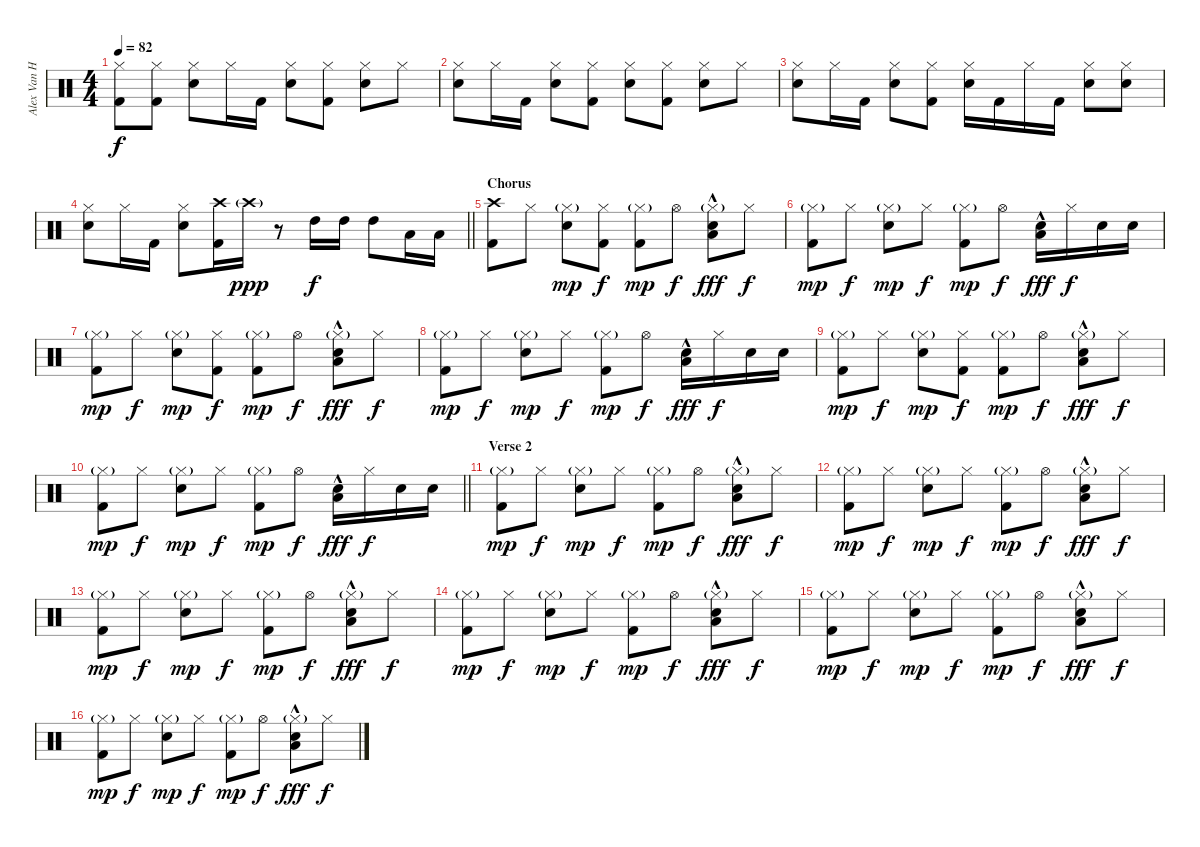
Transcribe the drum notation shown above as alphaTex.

\track ("Alex Van Halen" "Alex Van H") {instrument percussion}
\staff {score}
\articulation defaults
\ts (4 4)
\tempo 82
\clef neutral
\ks c
("Hi-Hat (closed)" "Kick (hit) 2").8{dy f} ("Hi-Hat (closed)" "Kick (hit) 2").8 ("Hi-Hat (closed)" "Electric Snare (hit)").8 "Hi-Hat (closed)".16 "Kick (hit) 2".16 ("Hi-Hat (closed)" "Electric Snare (hit)").8 ("Hi-Hat (closed)" "Kick (hit) 2").8 ("Hi-Hat (closed)" "Electric Snare (hit)").8 "Hi-Hat (closed)".8 |
("Hi-Hat (closed)" "Electric Snare (hit)").8 "Hi-Hat (closed)".16 "Kick (hit) 2".16 ("Hi-Hat (closed)" "Electric Snare (hit)").8 ("Hi-Hat (closed)" "Kick (hit) 2").8 ("Hi-Hat (closed)" "Electric Snare (hit)").8 ("Hi-Hat (closed)" "Kick (hit) 2").8 ("Hi-Hat (closed)" "Electric Snare (hit)").8 "Hi-Hat (closed)".8 |
("Hi-Hat (closed)" "Electric Snare (hit)").8 "Hi-Hat (closed)".16 "Kick (hit) 2".16 ("Hi-Hat (closed)" "Electric Snare (hit)").8 ("Hi-Hat (closed)" "Kick (hit) 2").8 ("Hi-Hat (closed)" "Electric Snare (hit)").16 "Kick (hit) 2".16 "Hi-Hat (closed)".16 "Kick (hit) 2".16 ("Hi-Hat (closed)" "Electric Snare (hit)").8 ("Hi-Hat (closed)" "Electric Snare (hit)").8 |
\barLineRight lightlight
("Hi-Hat (closed)" "Electric Snare (hit)").8 "Hi-Hat (closed)".16 "Kick (hit) 2".16 ("Hi-Hat (closed)" "Electric Snare (hit)").8 ("Crash high (hit)" "Kick (hit) 2").16 "Crash high (hit)"{g}.16{dy ppp} r.8 "High Tom (hit)".16{dy f} "High Tom (hit)".16 "High Tom (hit)".8 "Low Tom (hit)".16 "Low Tom (hit)".16 |
\section ("" "Chorus")
("Crash high (hit)" "Kick (hit) 2").8 "Hi-Hat (closed)".8 ("Hi-Hat (closed)"{g} "Electric Snare (hit)").8{dy mp} ("Hi-Hat (closed)" "Kick (hit) 2").8{dy f} ("Hi-Hat (closed)"{g} "Kick (hit) 2").8{dy mp} "Hi-Hat (open)".8{dy f} ("Hi-Hat (closed)"{g} "Electric Snare (hit)" "Low Tom (hit)"{hac}).8{dy fff} "Hi-Hat (closed)".8{dy f} |
("Hi-Hat (closed)"{g} "Kick (hit) 2").8{dy mp} "Hi-Hat (closed)".8{dy f} ("Hi-Hat (closed)"{g} "Electric Snare (hit)").8{dy mp} "Hi-Hat (closed)".8{dy f} ("Hi-Hat (closed)"{g} "Kick (hit) 2").8{dy mp} "Hi-Hat (open)".8{dy f} ("Electric Snare (hit)" "Low Tom (hit)"{hac}).16{dy fff} "Hi-Hat (closed)".16{dy f} "Electric Snare (hit)".16 "Electric Snare (hit)".16 |
("Hi-Hat (closed)"{g} "Kick (hit) 2").8{dy mp} "Hi-Hat (closed)".8{dy f} ("Hi-Hat (closed)"{g} "Electric Snare (hit)").8{dy mp} ("Hi-Hat (closed)" "Kick (hit) 2").8{dy f} ("Hi-Hat (closed)"{g} "Kick (hit) 2").8{dy mp} "Hi-Hat (open)".8{dy f} ("Hi-Hat (closed)"{g} "Electric Snare (hit)" "Low Tom (hit)"{hac}).8{dy fff} "Hi-Hat (closed)".8{dy f} |
("Hi-Hat (closed)"{g} "Kick (hit) 2").8{dy mp} "Hi-Hat (closed)".8{dy f} ("Hi-Hat (closed)"{g} "Electric Snare (hit)").8{dy mp} "Hi-Hat (closed)".8{dy f} ("Hi-Hat (closed)"{g} "Kick (hit) 2").8{dy mp} "Hi-Hat (open)".8{dy f} ("Electric Snare (hit)" "Low Tom (hit)"{hac}).16{dy fff} "Hi-Hat (closed)".16{dy f} "Electric Snare (hit)".16 "Electric Snare (hit)".16 |
("Hi-Hat (closed)"{g} "Kick (hit) 2").8{dy mp} "Hi-Hat (closed)".8{dy f} ("Hi-Hat (closed)"{g} "Electric Snare (hit)").8{dy mp} ("Hi-Hat (closed)" "Kick (hit) 2").8{dy f} ("Hi-Hat (closed)"{g} "Kick (hit) 2").8{dy mp} "Hi-Hat (open)".8{dy f} ("Hi-Hat (closed)"{g} "Electric Snare (hit)" "Low Tom (hit)"{hac}).8{dy fff} "Hi-Hat (closed)".8{dy f} |
\barLineRight lightlight
("Hi-Hat (closed)"{g} "Kick (hit) 2").8{dy mp} "Hi-Hat (closed)".8{dy f} ("Hi-Hat (closed)"{g} "Electric Snare (hit)").8{dy mp} "Hi-Hat (closed)".8{dy f} ("Hi-Hat (closed)"{g} "Kick (hit) 2").8{dy mp} "Hi-Hat (open)".8{dy f} ("Electric Snare (hit)" "Low Tom (hit)"{hac}).16{dy fff} "Hi-Hat (closed)".16{dy f} "Electric Snare (hit)".16 "Electric Snare (hit)".16 |
\section ("" "Verse 2")
("Hi-Hat (closed)"{g} "Kick (hit) 2").8{dy mp} "Hi-Hat (closed)".8{dy f} ("Hi-Hat (closed)"{g} "Electric Snare (hit)").8{dy mp} "Hi-Hat (closed)".8{dy f} ("Hi-Hat (closed)"{g} "Kick (hit) 2").8{dy mp} "Hi-Hat (open)".8{dy f} ("Hi-Hat (closed)"{g} "Electric Snare (hit)" "Low Tom (hit)"{hac}).8{dy fff} "Hi-Hat (closed)".8{dy f} |
("Hi-Hat (closed)"{g} "Kick (hit) 2").8{dy mp} "Hi-Hat (closed)".8{dy f} ("Hi-Hat (closed)"{g} "Electric Snare (hit)").8{dy mp} "Hi-Hat (closed)".8{dy f} ("Hi-Hat (closed)"{g} "Kick (hit) 2").8{dy mp} "Hi-Hat (open)".8{dy f} ("Hi-Hat (closed)"{g} "Electric Snare (hit)" "Low Tom (hit)"{hac}).8{dy fff} "Hi-Hat (closed)".8{dy f} |
("Hi-Hat (closed)"{g} "Kick (hit) 2").8{dy mp} "Hi-Hat (closed)".8{dy f} ("Hi-Hat (closed)"{g} "Electric Snare (hit)").8{dy mp} "Hi-Hat (closed)".8{dy f} ("Hi-Hat (closed)"{g} "Kick (hit) 2").8{dy mp} "Hi-Hat (open)".8{dy f} ("Hi-Hat (closed)"{g} "Electric Snare (hit)" "Low Tom (hit)"{hac}).8{dy fff} "Hi-Hat (closed)".8{dy f} |
("Hi-Hat (closed)"{g} "Kick (hit) 2").8{dy mp} "Hi-Hat (closed)".8{dy f} ("Hi-Hat (closed)"{g} "Electric Snare (hit)").8{dy mp} "Hi-Hat (closed)".8{dy f} ("Hi-Hat (closed)"{g} "Kick (hit) 2").8{dy mp} "Hi-Hat (open)".8{dy f} ("Hi-Hat (closed)"{g} "Electric Snare (hit)" "Low Tom (hit)"{hac}).8{dy fff} "Hi-Hat (closed)".8{dy f} |
("Hi-Hat (closed)"{g} "Kick (hit) 2").8{dy mp} "Hi-Hat (closed)".8{dy f} ("Hi-Hat (closed)"{g} "Electric Snare (hit)").8{dy mp} "Hi-Hat (closed)".8{dy f} ("Hi-Hat (closed)"{g} "Kick (hit) 2").8{dy mp} "Hi-Hat (open)".8{dy f} ("Hi-Hat (closed)"{g} "Electric Snare (hit)" "Low Tom (hit)"{hac}).8{dy fff} "Hi-Hat (closed)".8{dy f} |
("Hi-Hat (closed)"{g} "Kick (hit) 2").8{dy mp} "Hi-Hat (closed)".8{dy f} ("Hi-Hat (closed)"{g} "Electric Snare (hit)").8{dy mp} "Hi-Hat (closed)".8{dy f} ("Hi-Hat (closed)"{g} "Kick (hit) 2").8{dy mp} "Hi-Hat (open)".8{dy f} ("Hi-Hat (closed)"{g} "Electric Snare (hit)" "Low Tom (hit)"{hac}).8{dy fff} "Hi-Hat (closed)".8{dy f}
